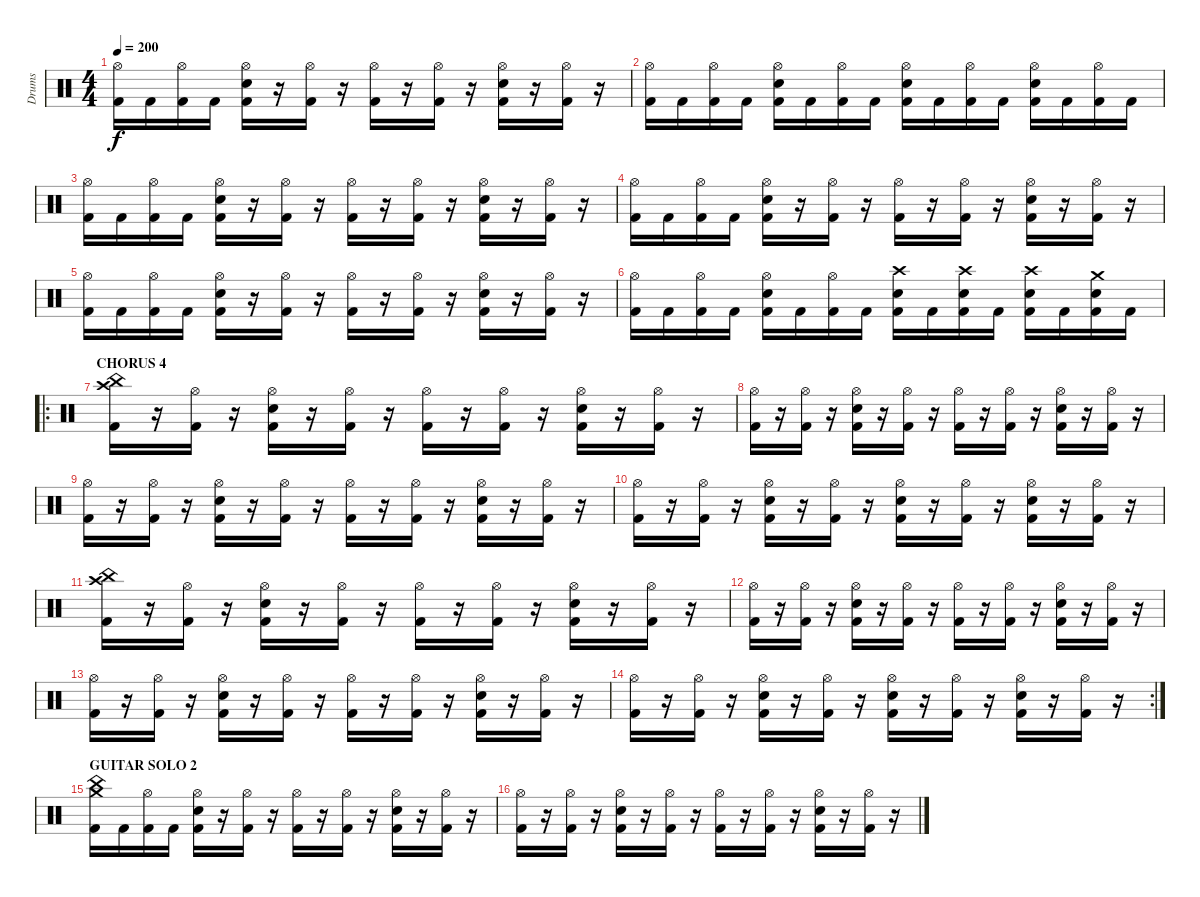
\track ("Drums" "Drums") {instrument percussion}
\staff {score}
\articulation defaults
\ts (4 4)
\tempo 200
\clef neutral
\ks c
("Hi-Hat (open)" "Kick (hit) 2").16{dy f} "Kick (hit) 2".16 ("Hi-Hat (open)" "Kick (hit) 2").16 "Kick (hit) 2".16 ("Hi-Hat (open)" "Electric Snare (hit)" "Kick (hit) 2").16 r.16 ("Hi-Hat (open)" "Kick (hit) 2").16 r.16 ("Hi-Hat (open)" "Kick (hit) 2").16 r.16 ("Hi-Hat (open)" "Kick (hit) 2").16 r.16 ("Hi-Hat (open)" "Electric Snare (hit)" "Kick (hit) 2").16 r.16 ("Hi-Hat (open)" "Kick (hit) 2").16 r.16 |
("Hi-Hat (open)" "Kick (hit) 2").16 "Kick (hit) 2".16 ("Hi-Hat (open)" "Kick (hit) 2").16 "Kick (hit) 2".16 ("Hi-Hat (open)" "Electric Snare (hit)" "Kick (hit) 2").16 "Kick (hit) 2".16 ("Hi-Hat (open)" "Kick (hit) 2").16 "Kick (hit) 2".16 ("Hi-Hat (open)" "Electric Snare (hit)" "Kick (hit) 2").16 "Kick (hit) 2".16 ("Hi-Hat (open)" "Kick (hit) 2").16 "Kick (hit) 2".16 ("Hi-Hat (open)" "Electric Snare (hit)" "Kick (hit) 2").16 "Kick (hit) 2".16 ("Hi-Hat (open)" "Kick (hit) 2").16 "Kick (hit) 2".16 |
("Hi-Hat (open)" "Kick (hit) 2").16 "Kick (hit) 2".16 ("Hi-Hat (open)" "Kick (hit) 2").16 "Kick (hit) 2".16 ("Hi-Hat (open)" "Electric Snare (hit)" "Kick (hit) 2").16 r.16 ("Hi-Hat (open)" "Kick (hit) 2").16 r.16 ("Hi-Hat (open)" "Kick (hit) 2").16 r.16 ("Hi-Hat (open)" "Kick (hit) 2").16 r.16 ("Hi-Hat (open)" "Electric Snare (hit)" "Kick (hit) 2").16 r.16 ("Hi-Hat (open)" "Kick (hit) 2").16 r.16 |
("Hi-Hat (open)" "Kick (hit) 2").16 "Kick (hit) 2".16 ("Hi-Hat (open)" "Kick (hit) 2").16 "Kick (hit) 2".16 ("Hi-Hat (open)" "Electric Snare (hit)" "Kick (hit) 2").16 r.16 ("Hi-Hat (open)" "Kick (hit) 2").16 r.16 ("Hi-Hat (open)" "Kick (hit) 2").16 r.16 ("Hi-Hat (open)" "Kick (hit) 2").16 r.16 ("Hi-Hat (open)" "Electric Snare (hit)" "Kick (hit) 2").16 r.16 ("Hi-Hat (open)" "Kick (hit) 2").16 r.16 |
("Hi-Hat (open)" "Kick (hit) 2").16 "Kick (hit) 2".16 ("Hi-Hat (open)" "Kick (hit) 2").16 "Kick (hit) 2".16 ("Hi-Hat (open)" "Electric Snare (hit)" "Kick (hit) 2").16 r.16 ("Hi-Hat (open)" "Kick (hit) 2").16 r.16 ("Hi-Hat (open)" "Kick (hit) 2").16 r.16 ("Hi-Hat (open)" "Kick (hit) 2").16 r.16 ("Hi-Hat (open)" "Electric Snare (hit)" "Kick (hit) 2").16 r.16 ("Hi-Hat (open)" "Kick (hit) 2").16 r.16 |
("Hi-Hat (open)" "Kick (hit) 2").16 "Kick (hit) 2".16 ("Hi-Hat (open)" "Kick (hit) 2").16 "Kick (hit) 2".16 ("Hi-Hat (open)" "Electric Snare (hit)" "Kick (hit) 2").16 "Kick (hit) 2".16 ("Hi-Hat (open)" "Kick (hit) 2").16 "Kick (hit) 2".16 ("Crash high (hit)" "Electric Snare (hit)" "Kick (hit) 2").16 "Kick (hit) 2".16 ("Crash high (hit)" "Electric Snare (hit)" "Kick (hit) 2").16 "Kick (hit) 2".16 ("Crash high (hit)" "Electric Snare (hit)" "Kick (hit) 2").16 "Kick (hit) 2".16 ("Crash medium (hit)" "Electric Snare (hit)" "Kick (hit) 2").16 "Kick (hit) 2".16 |
\ro
\section ("" "CHORUS 4")
("Crash high (hit)" "China (hit)" "Kick (hit) 2").16 r.16 ("Hi-Hat (open)" "Kick (hit) 2").16 r.16 ("Hi-Hat (open)" "Electric Snare (hit)" "Kick (hit) 2").16 r.16 ("Hi-Hat (open)" "Kick (hit) 2").16 r.16 ("Hi-Hat (open)" "Kick (hit) 2").16 r.16 ("Hi-Hat (open)" "Kick (hit) 2").16 r.16 ("Hi-Hat (open)" "Electric Snare (hit)" "Kick (hit) 2").16 r.16 ("Hi-Hat (open)" "Kick (hit) 2").16 r.16 |
("Hi-Hat (open)" "Kick (hit) 2").16 r.16 ("Hi-Hat (open)" "Kick (hit) 2").16 r.16 ("Hi-Hat (open)" "Electric Snare (hit)" "Kick (hit) 2").16 r.16 ("Hi-Hat (open)" "Kick (hit) 2").16 r.16 ("Hi-Hat (open)" "Kick (hit) 2").16 r.16 ("Hi-Hat (open)" "Kick (hit) 2").16 r.16 ("Hi-Hat (open)" "Electric Snare (hit)" "Kick (hit) 2").16 r.16 ("Hi-Hat (open)" "Kick (hit) 2").16 r.16 |
("Hi-Hat (open)" "Kick (hit) 2").16 r.16 ("Hi-Hat (open)" "Kick (hit) 2").16 r.16 ("Hi-Hat (open)" "Electric Snare (hit)" "Kick (hit) 2").16 r.16 ("Hi-Hat (open)" "Kick (hit) 2").16 r.16 ("Hi-Hat (open)" "Kick (hit) 2").16 r.16 ("Hi-Hat (open)" "Kick (hit) 2").16 r.16 ("Hi-Hat (open)" "Electric Snare (hit)" "Kick (hit) 2").16 r.16 ("Hi-Hat (open)" "Kick (hit) 2").16 r.16 |
("Hi-Hat (open)" "Kick (hit) 2").16 r.16 ("Hi-Hat (open)" "Kick (hit) 2").16 r.16 ("Hi-Hat (open)" "Electric Snare (hit)" "Kick (hit) 2").16 r.16 ("Hi-Hat (open)" "Kick (hit) 2").16 r.16 ("Hi-Hat (open)" "Electric Snare (hit)" "Kick (hit) 2").16 r.16 ("Hi-Hat (open)" "Kick (hit) 2").16 r.16 ("Hi-Hat (open)" "Electric Snare (hit)" "Kick (hit) 2").16 r.16 ("Hi-Hat (open)" "Kick (hit) 2").16 r.16 |
("Crash high (hit)" "China (hit)" "Kick (hit) 2").16 r.16 ("Hi-Hat (open)" "Kick (hit) 2").16 r.16 ("Hi-Hat (open)" "Electric Snare (hit)" "Kick (hit) 2").16 r.16 ("Hi-Hat (open)" "Kick (hit) 2").16 r.16 ("Hi-Hat (open)" "Kick (hit) 2").16 r.16 ("Hi-Hat (open)" "Kick (hit) 2").16 r.16 ("Hi-Hat (open)" "Electric Snare (hit)" "Kick (hit) 2").16 r.16 ("Hi-Hat (open)" "Kick (hit) 2").16 r.16 |
("Hi-Hat (open)" "Kick (hit) 2").16 r.16 ("Hi-Hat (open)" "Kick (hit) 2").16 r.16 ("Hi-Hat (open)" "Electric Snare (hit)" "Kick (hit) 2").16 r.16 ("Hi-Hat (open)" "Kick (hit) 2").16 r.16 ("Hi-Hat (open)" "Kick (hit) 2").16 r.16 ("Hi-Hat (open)" "Kick (hit) 2").16 r.16 ("Hi-Hat (open)" "Electric Snare (hit)" "Kick (hit) 2").16 r.16 ("Hi-Hat (open)" "Kick (hit) 2").16 r.16 |
("Hi-Hat (open)" "Kick (hit) 2").16 r.16 ("Hi-Hat (open)" "Kick (hit) 2").16 r.16 ("Hi-Hat (open)" "Electric Snare (hit)" "Kick (hit) 2").16 r.16 ("Hi-Hat (open)" "Kick (hit) 2").16 r.16 ("Hi-Hat (open)" "Kick (hit) 2").16 r.16 ("Hi-Hat (open)" "Kick (hit) 2").16 r.16 ("Hi-Hat (open)" "Electric Snare (hit)" "Kick (hit) 2").16 r.16 ("Hi-Hat (open)" "Kick (hit) 2").16 r.16 |
\rc 2
("Hi-Hat (open)" "Kick (hit) 2").16 r.16 ("Hi-Hat (open)" "Kick (hit) 2").16 r.16 ("Hi-Hat (open)" "Electric Snare (hit)" "Kick (hit) 2").16 r.16 ("Hi-Hat (open)" "Kick (hit) 2").16 r.16 ("Hi-Hat (open)" "Electric Snare (hit)" "Kick (hit) 2").16 r.16 ("Hi-Hat (open)" "Kick (hit) 2").16 r.16 ("Hi-Hat (open)" "Electric Snare (hit)" "Kick (hit) 2").16 r.16 ("Hi-Hat (open)" "Kick (hit) 2").16 r.16 |
\section ("" "GUITAR SOLO 2")
("China (hit)" "Crash medium (hit)" "Kick (hit) 2").16 "Kick (hit) 2".16 ("Hi-Hat (open)" "Kick (hit) 2").16 "Kick (hit) 2".16 ("Hi-Hat (open)" "Electric Snare (hit)" "Kick (hit) 2").16 r.16 ("Hi-Hat (open)" "Kick (hit) 2").16 r.16 ("Hi-Hat (open)" "Kick (hit) 2").16 r.16 ("Hi-Hat (open)" "Kick (hit) 2").16 r.16 ("Hi-Hat (open)" "Electric Snare (hit)" "Kick (hit) 2").16 r.16 ("Hi-Hat (open)" "Kick (hit) 2").16 r.16 |
("Hi-Hat (open)" "Kick (hit) 2").16 r.16 ("Hi-Hat (open)" "Kick (hit) 2").16 r.16 ("Hi-Hat (open)" "Electric Snare (hit)" "Kick (hit) 2").16 r.16 ("Hi-Hat (open)" "Kick (hit) 2").16 r.16 ("Hi-Hat (open)" "Kick (hit) 2").16 r.16 ("Hi-Hat (open)" "Kick (hit) 2").16 r.16 ("Hi-Hat (open)" "Electric Snare (hit)" "Kick (hit) 2").16 r.16 ("Hi-Hat (open)" "Kick (hit) 2").16 r.16
